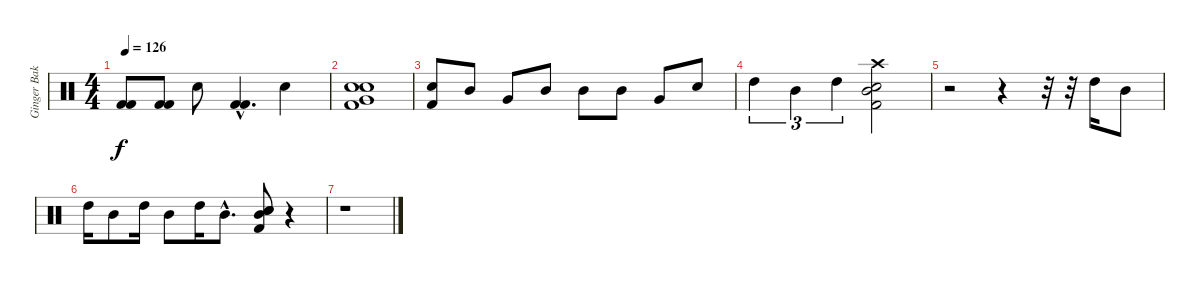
\track ("Ginger Baker" "Ginger Bak") {instrument percussion}
\staff {score}
\articulation defaults
\ts (4 4)
\tempo 126
\clef neutral
\ks c
("Kick (hit) 2" "Kick (hit) 2").8{dy f} ("Kick (hit) 2" "Kick (hit) 2").8 "Snare (hit) 2".8 ("Kick (hit) 2"{hac} "Kick (hit) 2"{hac}).4{d} "Snare (hit) 2".4 |
("Very Low Tom (hit)" "Snare (hit) 2" "Electric Snare (hit)" "Kick (hit) 2").1 |
("Electric Snare (hit)" "Kick (hit) 2").8 "Mid Tom (hit)".8 "Very Low Tom (hit)".8 "Mid Tom (hit)".8 "Mid Tom (hit)".8 "Mid Tom (hit)".8 "Very Low Tom (hit)".8 "Snare (hit) 2".8 |
"High Tom (hit)".4{tu (3 2)} "Mid Tom (hit)".4{tu (3 2)} "High Tom (hit)".4{tu (3 2)} ("Snare (hit) 2" "Mid Tom (hit)" "Crash high (hit)" "Kick (hit) 2").2 |
r.2 r.4 r.32 r.32 "High Tom (hit)".16 "Mid Tom (hit)".8 |
"High Tom (hit)".16 "Mid Tom (hit)".8 "High Tom (hit)".16 "Mid Tom (hit)".8 "High Tom (hit)".16 "Mid Tom (hit)"{hac}.8{d} ("Snare (hit) 2" "Electric Snare (hit)" "Mid Tom (hit)" "Kick (hit) 2").8 r.4 |
r.1
